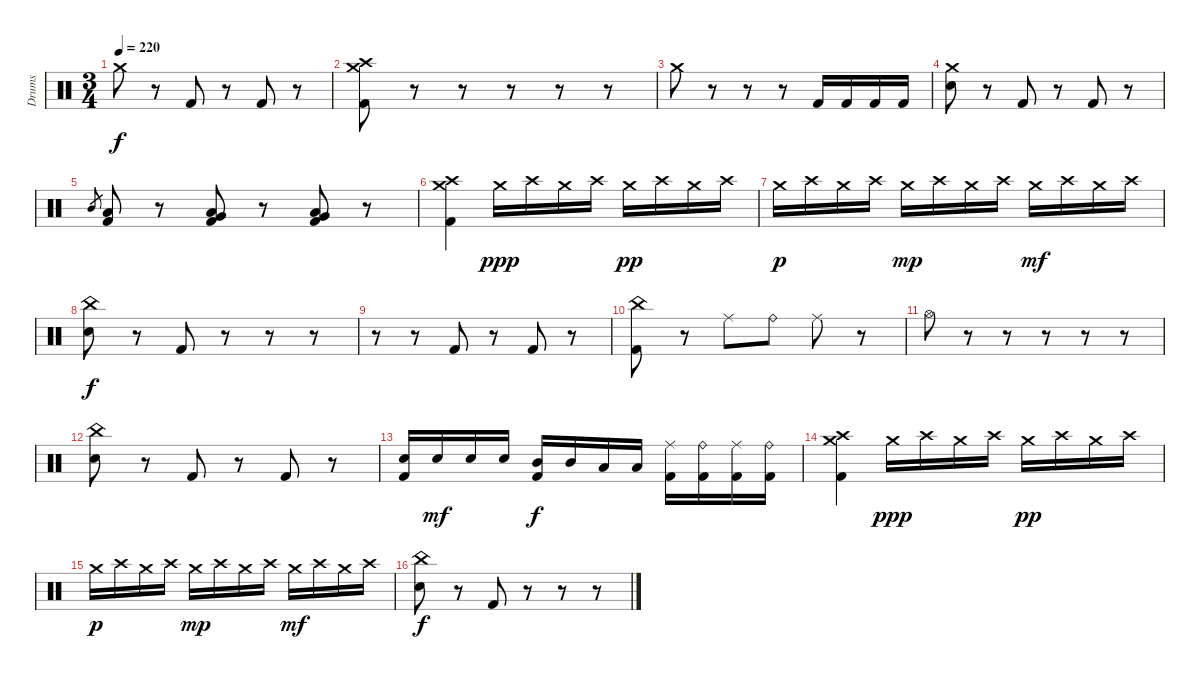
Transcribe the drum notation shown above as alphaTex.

\track ("Drums" "Drums") {instrument percussion}
\staff {score}
\articulation defaults
\ts (3 4)
\tempo 220
\clef neutral
\ks c "Crash medium (hit)".8{dy f}
r.8 "Kick (hit) 2".8 r.8 "Kick (hit) 2".8 r.8 |
("Crash medium (hit)" "Crash high (hit)" "Kick (hit) 2").8 r.8 r.8 r.8 r.8 r.8 |
"Crash medium (hit)".8 r.8 r.8 r.8 "Kick (hit) 2".16 "Kick (hit) 2".16 "Kick (hit) 2".16 "Kick (hit) 2".16 |
("Crash medium (hit)" "Electric Snare (hit)").8 r.8 "Kick (hit) 2".8 r.8 "Kick (hit) 2".8 r.8 |
"Mid Tom (hit)".8{gr} ("Low Tom (hit)" "Kick (hit) 2").8 r.8 ("Low Tom (hit)" "Very Low Tom (hit)" "Kick (hit) 2").8 r.8 ("Very Low Tom (hit)" "Low Floor Tom (hit)" "Kick (hit) 2").8 r.8 |
("Crash medium (hit)" "Crash high (hit)" "Kick (hit) 2").4 "Crash medium (hit)".16{dy ppp} "Crash high (hit)".16 "Crash medium (hit)".16 "Crash high (hit)".16 "Crash medium (hit)".16{dy pp} "Crash high (hit)".16 "Crash medium (hit)".16 "Crash high (hit)".16 |
"Crash medium (hit)".16{dy p} "Crash high (hit)".16 "Crash medium (hit)".16 "Crash high (hit)".16 "Crash medium (hit)".16{dy mp} "Crash high (hit)".16 "Crash medium (hit)".16 "Crash high (hit)".16 "Crash medium (hit)".16{dy mf} "Crash high (hit)".16 "Crash medium (hit)".16 "Crash high (hit)".16 |
("China (hit)" "Electric Snare (hit)").8{dy f} r.8 "Kick (hit) 2".8 r.8 r.8 r.8 |
r.8 r.8 "Kick (hit) 2".8 r.8 "Kick (hit) 2".8 r.8 |
("China (hit)" "Kick (hit) 2").8 r.8 "Ride (middle)".8 "Ride (bell)".8 "Ride (middle)".8 r.8 |
"Hi-Hat (open)".8 r.8 r.8 r.8 r.8 r.8 |
("China (hit)" "Electric Snare (hit)").8 r.8 "Kick (hit) 2".8 r.8 "Kick (hit) 2".8 r.8 |
("Electric Snare (hit)" "Kick (hit) 2").16 "Electric Snare (hit)".16{dy mf} "Electric Snare (hit)".16 "Electric Snare (hit)".16 ("Mid Tom (hit)" "Kick (hit) 2").16{dy f} "Mid Tom (hit)".16 "Low Tom (hit)".16 "Low Tom (hit)".16 ("Ride (middle)" "Kick (hit) 2").16 ("Ride (bell)" "Kick (hit) 2").16 ("Ride (middle)" "Kick (hit) 2").16 ("Ride (bell)" "Kick (hit) 2").16 |
("Crash medium (hit)" "Crash high (hit)" "Kick (hit) 2").4 "Crash medium (hit)".16{dy ppp} "Crash high (hit)".16 "Crash medium (hit)".16 "Crash high (hit)".16 "Crash medium (hit)".16{dy pp} "Crash high (hit)".16 "Crash medium (hit)".16 "Crash high (hit)".16 |
"Crash medium (hit)".16{dy p} "Crash high (hit)".16 "Crash medium (hit)".16 "Crash high (hit)".16 "Crash medium (hit)".16{dy mp} "Crash high (hit)".16 "Crash medium (hit)".16 "Crash high (hit)".16 "Crash medium (hit)".16{dy mf} "Crash high (hit)".16 "Crash medium (hit)".16 "Crash high (hit)".16 |
("China (hit)" "Electric Snare (hit)").8{dy f} r.8 "Kick (hit) 2".8 r.8 r.8 r.8
